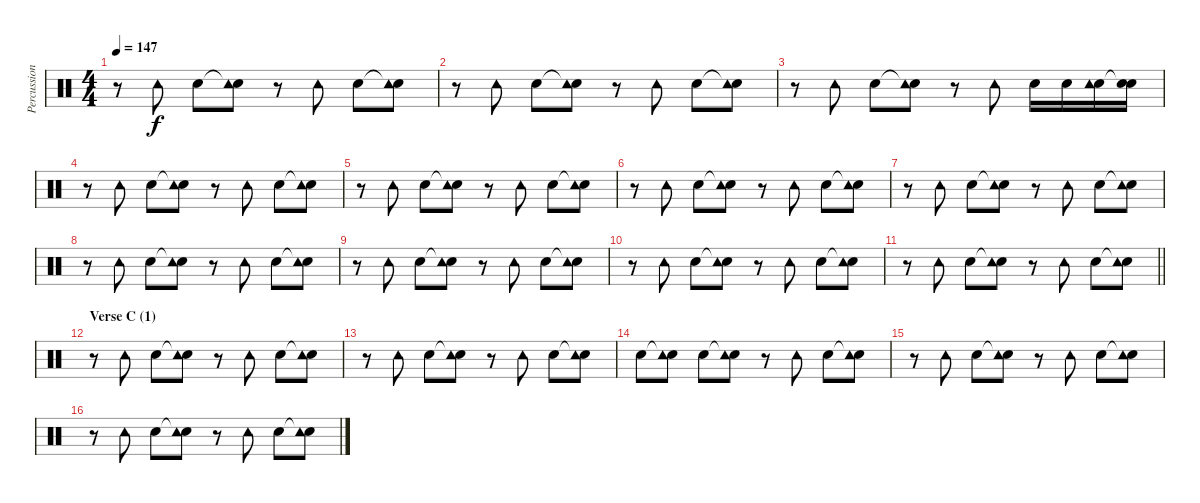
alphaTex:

\track ("Percussion" "Percussion") {instrument percussion}
\staff {score}
\articulation defaults
\ts (4 4)
\tempo 147
\clef neutral
\ks aminor
r.8{dy f} "Tambourine (hit)".8 "Hand Clap (hit)".8 ("Snare (hit)"{t} "Tambourine (hit)").8 r.8 "Tambourine (hit)".8 "Hand Clap (hit)".8 ("Snare (hit)"{t} "Tambourine (hit)").8 |
r.8 "Tambourine (hit)".8 "Hand Clap (hit)".8 ("Snare (hit)"{t} "Tambourine (hit)").8 r.8 "Tambourine (hit)".8 "Hand Clap (hit)".8 ("Snare (hit)"{t} "Tambourine (hit)").8 |
r.8 "Tambourine (hit)".8 "Hand Clap (hit)".8 ("Snare (hit)"{t} "Tambourine (hit)").8 r.8 "Tambourine (hit)".8 "Hand Clap (hit)".16 "Hand Clap (hit)".16 ("Hand Clap (hit)" "Tambourine (hit)").16 ("Hand Clap (hit)" "Snare (hit)"{t}).16 |
r.8 "Tambourine (hit)".8 "Hand Clap (hit)".8 ("Snare (hit)"{t} "Tambourine (hit)").8 r.8 "Tambourine (hit)".8 "Hand Clap (hit)".8 ("Snare (hit)"{t} "Tambourine (hit)").8 |
r.8 "Tambourine (hit)".8 "Hand Clap (hit)".8 ("Snare (hit)"{t} "Tambourine (hit)").8 r.8 "Tambourine (hit)".8 "Hand Clap (hit)".8 ("Snare (hit)"{t} "Tambourine (hit)").8 |
r.8 "Tambourine (hit)".8 "Hand Clap (hit)".8 ("Snare (hit)"{t} "Tambourine (hit)").8 r.8 "Tambourine (hit)".8 "Hand Clap (hit)".8 ("Snare (hit)"{t} "Tambourine (hit)").8 |
r.8 "Tambourine (hit)".8 "Hand Clap (hit)".8 ("Snare (hit)"{t} "Tambourine (hit)").8 r.8 "Tambourine (hit)".8 "Hand Clap (hit)".8 ("Snare (hit)"{t} "Tambourine (hit)").8 |
r.8 "Tambourine (hit)".8 "Hand Clap (hit)".8 ("Snare (hit)"{t} "Tambourine (hit)").8 r.8 "Tambourine (hit)".8 "Hand Clap (hit)".8 ("Snare (hit)"{t} "Tambourine (hit)").8 |
r.8 "Tambourine (hit)".8 "Hand Clap (hit)".8 ("Snare (hit)"{t} "Tambourine (hit)").8 r.8 "Tambourine (hit)".8 "Hand Clap (hit)".8 ("Snare (hit)"{t} "Tambourine (hit)").8 |
r.8 "Tambourine (hit)".8 "Hand Clap (hit)".8 ("Snare (hit)"{t} "Tambourine (hit)").8 r.8 "Tambourine (hit)".8 "Hand Clap (hit)".8 ("Snare (hit)"{t} "Tambourine (hit)").8 |
\barLineRight lightlight
r.8 "Tambourine (hit)".8 "Hand Clap (hit)".8 ("Snare (hit)"{t} "Tambourine (hit)").8 r.8 "Tambourine (hit)".8 "Hand Clap (hit)".8 ("Snare (hit)"{t} "Tambourine (hit)").8 |
\section ("" "Verse C (1)")
r.8 "Tambourine (hit)".8 "Hand Clap (hit)".8 ("Snare (hit)"{t} "Tambourine (hit)").8 r.8 "Tambourine (hit)".8 "Hand Clap (hit)".8 ("Snare (hit)"{t} "Tambourine (hit)").8 |
r.8 "Tambourine (hit)".8 "Hand Clap (hit)".8 ("Snare (hit)"{t} "Tambourine (hit)").8 r.8 "Tambourine (hit)".8 "Hand Clap (hit)".8 ("Snare (hit)"{t} "Tambourine (hit)").8 |
"Hand Clap (hit)".8 ("Snare (hit)"{t} "Tambourine (hit)").8 "Hand Clap (hit)".8 ("Snare (hit)"{t} "Tambourine (hit)").8 r.8 "Tambourine (hit)".8 "Hand Clap (hit)".8 ("Snare (hit)"{t} "Tambourine (hit)").8 |
r.8 "Tambourine (hit)".8 "Hand Clap (hit)".8 ("Snare (hit)"{t} "Tambourine (hit)").8 r.8 "Tambourine (hit)".8 "Hand Clap (hit)".8 ("Snare (hit)"{t} "Tambourine (hit)").8 |
r.8 "Tambourine (hit)".8 "Hand Clap (hit)".8 ("Snare (hit)"{t} "Tambourine (hit)").8 r.8 "Tambourine (hit)".8 "Hand Clap (hit)".8 ("Snare (hit)"{t} "Tambourine (hit)").8
